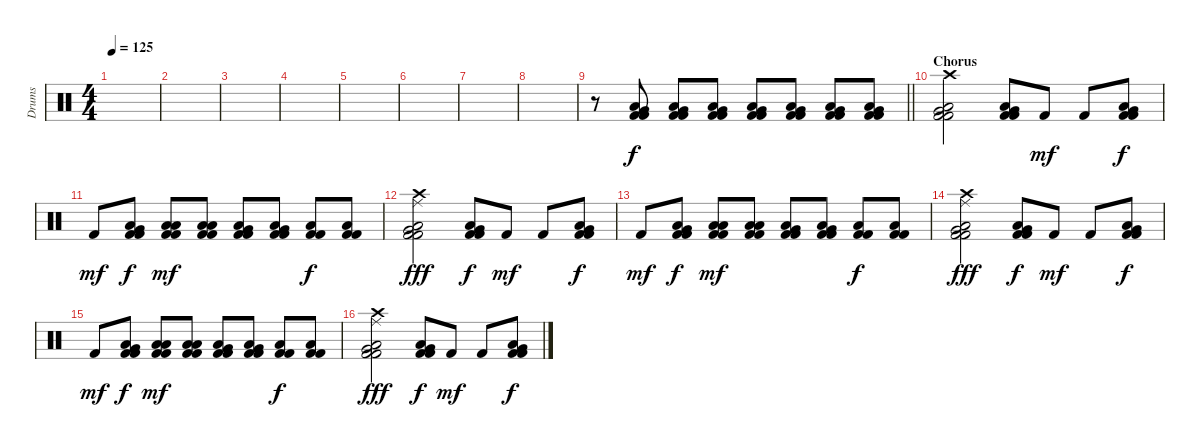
\track ("Drums" "Drums") {instrument percussion}
\staff {score}
\articulation defaults
\ts (4 4)
\tempo 125
\clef neutral
\ks c
|
|
|
|
|
|
|
|
\barLineRight lightlight
r.8 ("Very Low Tom (hit)" "Low Floor Tom (hit)" "Kick (hit) 2" "Kick (hit) 2").8{dy f} ("Very Low Tom (hit)" "Low Floor Tom (hit)" "Kick (hit) 2" "Kick (hit) 2").8 ("Very Low Tom (hit)" "Low Floor Tom (hit)" "Kick (hit) 2" "Kick (hit) 2").8 ("Very Low Tom (hit)" "Low Floor Tom (hit)" "Kick (hit) 2" "Kick (hit) 2").8 ("Very Low Tom (hit)" "Low Floor Tom (hit)" "Kick (hit) 2" "Kick (hit) 2").8 ("Very Low Tom (hit)" "Low Floor Tom (hit)" "Kick (hit) 2" "Kick (hit) 2").8 ("Very Low Tom (hit)" "Low Floor Tom (hit)" "Kick (hit) 2" "Kick (hit) 2").8 |
\section ("" "Chorus")
("Crash high (hit)" "Very Low Tom (hit)" "Low Floor Tom (hit)" "Kick (hit) 2" "Kick (hit) 2").2 ("Very Low Tom (hit)" "Low Floor Tom (hit)" "Kick (hit) 2" "Kick (hit) 2").8 "Kick (hit) 2".8{dy mf} "Kick (hit) 2".8 ("Very Low Tom (hit)" "Low Floor Tom (hit)" "Kick (hit) 2" "Kick (hit) 2").8{dy f} |
"Kick (hit) 2".8{dy mf} ("Very Low Tom (hit)" "Low Floor Tom (hit)" "Kick (hit) 2" "Kick (hit) 2").8{dy f} ("Low Tom (hit)" "Low Floor Tom (hit)" "Kick (hit) 2" "Kick (hit) 2").8{dy mf} ("Low Tom (hit)" "Low Floor Tom (hit)" "Kick (hit) 2" "Kick (hit) 2").8 ("Very Low Tom (hit)" "Low Floor Tom (hit)" "Kick (hit) 2" "Kick (hit) 2").8 ("Very Low Tom (hit)" "Low Floor Tom (hit)" "Kick (hit) 2" "Kick (hit) 2").8 ("Low Floor Tom (hit)" "Kick (hit) 2" "Kick (hit) 2").8{dy f} ("Low Floor Tom (hit)" "Kick (hit) 2" "Kick (hit) 2").8 |
("Crash high (hit)" "Ride (middle)" "Very Low Tom (hit)" "Low Floor Tom (hit)" "Kick (hit) 2" "Kick (hit) 2").2{dy fff} ("Very Low Tom (hit)" "Low Floor Tom (hit)" "Kick (hit) 2" "Kick (hit) 2").8{dy f} "Kick (hit) 2".8{dy mf} "Kick (hit) 2".8 ("Very Low Tom (hit)" "Low Floor Tom (hit)" "Kick (hit) 2" "Kick (hit) 2").8{dy f} |
"Kick (hit) 2".8{dy mf} ("Very Low Tom (hit)" "Low Floor Tom (hit)" "Kick (hit) 2" "Kick (hit) 2").8{dy f} ("Low Tom (hit)" "Low Floor Tom (hit)" "Kick (hit) 2" "Kick (hit) 2").8{dy mf} ("Low Tom (hit)" "Low Floor Tom (hit)" "Kick (hit) 2" "Kick (hit) 2").8 ("Very Low Tom (hit)" "Low Floor Tom (hit)" "Kick (hit) 2" "Kick (hit) 2").8 ("Very Low Tom (hit)" "Low Floor Tom (hit)" "Kick (hit) 2" "Kick (hit) 2").8 ("Low Floor Tom (hit)" "Kick (hit) 2" "Kick (hit) 2").8{dy f} ("Low Floor Tom (hit)" "Kick (hit) 2" "Kick (hit) 2").8 |
("Crash high (hit)" "Ride (middle)" "Very Low Tom (hit)" "Low Floor Tom (hit)" "Kick (hit) 2" "Kick (hit) 2").2{dy fff} ("Very Low Tom (hit)" "Low Floor Tom (hit)" "Kick (hit) 2" "Kick (hit) 2").8{dy f} "Kick (hit) 2".8{dy mf} "Kick (hit) 2".8 ("Very Low Tom (hit)" "Low Floor Tom (hit)" "Kick (hit) 2" "Kick (hit) 2").8{dy f} |
"Kick (hit) 2".8{dy mf} ("Very Low Tom (hit)" "Low Floor Tom (hit)" "Kick (hit) 2" "Kick (hit) 2").8{dy f} ("Low Tom (hit)" "Low Floor Tom (hit)" "Kick (hit) 2" "Kick (hit) 2").8{dy mf} ("Low Tom (hit)" "Low Floor Tom (hit)" "Kick (hit) 2" "Kick (hit) 2").8 ("Very Low Tom (hit)" "Low Floor Tom (hit)" "Kick (hit) 2" "Kick (hit) 2").8 ("Very Low Tom (hit)" "Low Floor Tom (hit)" "Kick (hit) 2" "Kick (hit) 2").8 ("Low Floor Tom (hit)" "Kick (hit) 2" "Kick (hit) 2").8{dy f} ("Low Floor Tom (hit)" "Kick (hit) 2" "Kick (hit) 2").8 |
("Crash high (hit)" "Ride (middle)" "Very Low Tom (hit)" "Low Floor Tom (hit)" "Kick (hit) 2" "Kick (hit) 2").2{dy fff} ("Very Low Tom (hit)" "Low Floor Tom (hit)" "Kick (hit) 2" "Kick (hit) 2").8{dy f} "Kick (hit) 2".8{dy mf} "Kick (hit) 2".8 ("Very Low Tom (hit)" "Low Floor Tom (hit)" "Kick (hit) 2" "Kick (hit) 2").8{dy f}
